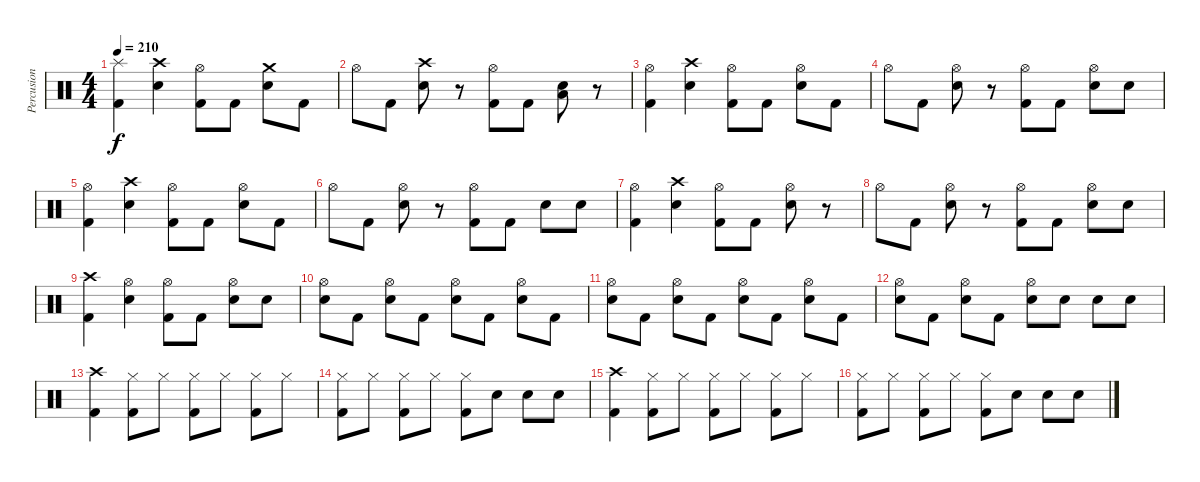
\track ("Percusion" "Percusion") {instrument percussion}
\staff {score}
\articulation defaults
\ts (4 4)
\tempo 210
\clef neutral
\ks c
("Splash (hit)" "Kick (hit) 2").4{dy f} ("Crash high (hit)" "Snare (hit) 2").4 ("Hi-Hat (open)" "Kick (hit) 2").8 "Kick (hit) 2".8 ("Crash medium (hit)" "Snare (hit) 2").8 "Kick (hit) 2".8 |
"Hi-Hat (open)".8 "Kick (hit) 2".8 ("Crash high (hit)" "Snare (hit) 2").8 r.8 ("Hi-Hat (open)" "Kick (hit) 2").8 "Kick (hit) 2".8 ("Low Tom (hit)" "Snare (hit) 2").8 r.8 |
("Hi-Hat (open)" "Kick (hit) 2").4 ("Crash high (hit)" "Snare (hit) 2").4 ("Hi-Hat (open)" "Kick (hit) 2").8 "Kick (hit) 2".8 ("Hi-Hat (open)" "Snare (hit) 2").8 "Kick (hit) 2".8 |
"Hi-Hat (open)".8 "Kick (hit) 2".8 ("Hi-Hat (open)" "Snare (hit) 2").8 r.8 ("Hi-Hat (open)" "Kick (hit) 2").8 "Kick (hit) 2".8 ("Hi-Hat (open)" "Snare (hit) 2").8 "Snare (hit) 2".8 |
("Hi-Hat (open)" "Kick (hit) 2").4 ("Crash high (hit)" "Snare (hit) 2").4 ("Hi-Hat (open)" "Kick (hit) 2").8 "Kick (hit) 2".8 ("Hi-Hat (open)" "Snare (hit) 2").8 "Kick (hit) 2".8 |
"Hi-Hat (open)".8 "Kick (hit) 2".8 ("Hi-Hat (open)" "Snare (hit) 2").8 r.8 ("Hi-Hat (open)" "Kick (hit) 2").8 "Kick (hit) 2".8 "Snare (hit) 2".8 "Snare (hit) 2".8 |
("Hi-Hat (open)" "Kick (hit) 2").4 ("Crash high (hit)" "Snare (hit) 2").4 ("Hi-Hat (open)" "Kick (hit) 2").8 "Kick (hit) 2".8 ("Hi-Hat (open)" "Snare (hit) 2").8 r.8 |
"Hi-Hat (open)".8 "Kick (hit) 2".8 ("Hi-Hat (open)" "Snare (hit) 2").8 r.8 ("Hi-Hat (open)" "Kick (hit) 2").8 "Kick (hit) 2".8 ("Hi-Hat (open)" "Snare (hit) 2").8 "Snare (hit) 2".8 |
("Crash high (hit)" "Kick (hit) 2").4 ("Hi-Hat (open)" "Snare (hit) 2").4 ("Hi-Hat (open)" "Kick (hit) 2").8 "Kick (hit) 2".8 ("Hi-Hat (open)" "Snare (hit) 2").8 "Snare (hit) 2".8 |
("Hi-Hat (open)" "Snare (hit) 2").8 "Kick (hit) 2".8 ("Hi-Hat (open)" "Snare (hit) 2").8 "Kick (hit) 2".8 ("Hi-Hat (open)" "Snare (hit) 2").8 "Kick (hit) 2".8 ("Hi-Hat (open)" "Snare (hit) 2").8 "Kick (hit) 2".8 |
("Hi-Hat (open)" "Snare (hit) 2").8 "Kick (hit) 2".8 ("Hi-Hat (open)" "Snare (hit) 2").8 "Kick (hit) 2".8 ("Hi-Hat (open)" "Snare (hit) 2").8 "Kick (hit) 2".8 ("Hi-Hat (open)" "Snare (hit) 2").8 "Kick (hit) 2".8 |
("Hi-Hat (open)" "Snare (hit) 2").8 "Kick (hit) 2".8 ("Hi-Hat (open)" "Snare (hit) 2").8 "Kick (hit) 2".8 ("Hi-Hat (open)" "Snare (hit) 2").8 "Snare (hit) 2".8 "Snare (hit) 2".8 "Snare (hit) 2".8 |
("Crash high (hit)" "Kick (hit) 2").4 ("Hi-Hat (closed)" "Kick (hit) 2").8 "Hi-Hat (closed)".8 ("Hi-Hat (closed)" "Kick (hit) 2").8 "Hi-Hat (closed)".8 ("Hi-Hat (closed)" "Kick (hit) 2").8 "Hi-Hat (closed)".8 |
("Hi-Hat (closed)" "Kick (hit) 2").8 "Hi-Hat (closed)".8 ("Hi-Hat (closed)" "Kick (hit) 2").8 "Hi-Hat (closed)".8 ("Hi-Hat (closed)" "Kick (hit) 2").8 "Snare (hit) 2".8 "Snare (hit) 2".8 "Snare (hit) 2".8 |
("Crash high (hit)" "Kick (hit) 2").4 ("Hi-Hat (closed)" "Kick (hit) 2").8 "Hi-Hat (closed)".8 ("Hi-Hat (closed)" "Kick (hit) 2").8 "Hi-Hat (closed)".8 ("Hi-Hat (closed)" "Kick (hit) 2").8 "Hi-Hat (closed)".8 |
("Hi-Hat (closed)" "Kick (hit) 2").8 "Hi-Hat (closed)".8 ("Hi-Hat (closed)" "Kick (hit) 2").8 "Hi-Hat (closed)".8 ("Hi-Hat (closed)" "Kick (hit) 2").8 "Snare (hit) 2".8 "Snare (hit) 2".8 "Snare (hit) 2".8
